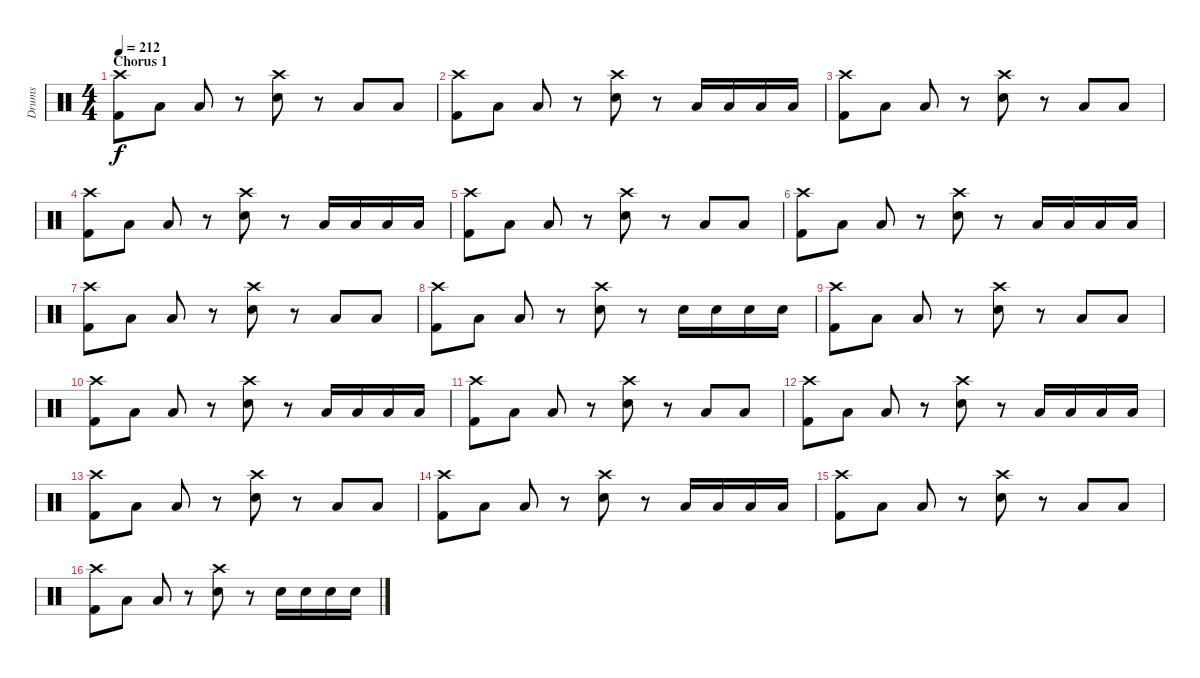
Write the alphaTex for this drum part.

\track ("Drums" "Drums") {instrument percussion}
\staff {score}
\articulation defaults
\ts (4 4)
\section ("" "Chorus 1")
\tempo 212
\clef neutral
\ks c
("Crash high (hit)" "Kick (hit) 2").8{dy f} "Low Floor Tom (hit)".8 "Low Floor Tom (hit)".8 r.8 ("Crash high (hit)" "Snare (hit) 2").8 r.8 "Low Floor Tom (hit)".8 "Low Floor Tom (hit)".8 |
("Crash high (hit)" "Kick (hit) 2").8 "Low Floor Tom (hit)".8 "Low Floor Tom (hit)".8 r.8 ("Crash high (hit)" "Snare (hit) 2").8 r.8 "Low Floor Tom (hit)".16 "Low Floor Tom (hit)".16 "Low Floor Tom (hit)".16 "Low Floor Tom (hit)".16 |
("Crash high (hit)" "Kick (hit) 2").8 "Low Floor Tom (hit)".8 "Low Floor Tom (hit)".8 r.8 ("Crash high (hit)" "Snare (hit) 2").8 r.8 "Low Floor Tom (hit)".8 "Low Floor Tom (hit)".8 |
("Crash high (hit)" "Kick (hit) 2").8 "Low Floor Tom (hit)".8 "Low Floor Tom (hit)".8 r.8 ("Crash high (hit)" "Snare (hit) 2").8 r.8 "Low Floor Tom (hit)".16 "Low Floor Tom (hit)".16 "Low Floor Tom (hit)".16 "Low Floor Tom (hit)".16 |
("Crash high (hit)" "Kick (hit) 2").8 "Low Floor Tom (hit)".8 "Low Floor Tom (hit)".8 r.8 ("Crash high (hit)" "Snare (hit) 2").8 r.8 "Low Floor Tom (hit)".8 "Low Floor Tom (hit)".8 |
("Crash high (hit)" "Kick (hit) 2").8 "Low Floor Tom (hit)".8 "Low Floor Tom (hit)".8 r.8 ("Crash high (hit)" "Snare (hit) 2").8 r.8 "Low Floor Tom (hit)".16 "Low Floor Tom (hit)".16 "Low Floor Tom (hit)".16 "Low Floor Tom (hit)".16 |
("Crash high (hit)" "Kick (hit) 2").8 "Low Floor Tom (hit)".8 "Low Floor Tom (hit)".8 r.8 ("Crash high (hit)" "Snare (hit) 2").8 r.8 "Low Floor Tom (hit)".8 "Low Floor Tom (hit)".8 |
("Crash high (hit)" "Kick (hit) 2").8 "Low Floor Tom (hit)".8 "Low Floor Tom (hit)".8 r.8 ("Crash high (hit)" "Snare (hit) 2").8 r.8 "Snare (hit) 2".16 "Snare (hit) 2".16 "Snare (hit) 2".16 "Snare (hit) 2".16 |
("Crash high (hit)" "Kick (hit) 2").8 "Low Floor Tom (hit)".8 "Low Floor Tom (hit)".8 r.8 ("Crash high (hit)" "Snare (hit) 2").8 r.8 "Low Floor Tom (hit)".8 "Low Floor Tom (hit)".8 |
("Crash high (hit)" "Kick (hit) 2").8 "Low Floor Tom (hit)".8 "Low Floor Tom (hit)".8 r.8 ("Crash high (hit)" "Snare (hit) 2").8 r.8 "Low Floor Tom (hit)".16 "Low Floor Tom (hit)".16 "Low Floor Tom (hit)".16 "Low Floor Tom (hit)".16 |
("Crash high (hit)" "Kick (hit) 2").8 "Low Floor Tom (hit)".8 "Low Floor Tom (hit)".8 r.8 ("Crash high (hit)" "Snare (hit) 2").8 r.8 "Low Floor Tom (hit)".8 "Low Floor Tom (hit)".8 |
("Crash high (hit)" "Kick (hit) 2").8 "Low Floor Tom (hit)".8 "Low Floor Tom (hit)".8 r.8 ("Crash high (hit)" "Snare (hit) 2").8 r.8 "Low Floor Tom (hit)".16 "Low Floor Tom (hit)".16 "Low Floor Tom (hit)".16 "Low Floor Tom (hit)".16 |
("Crash high (hit)" "Kick (hit) 2").8 "Low Floor Tom (hit)".8 "Low Floor Tom (hit)".8 r.8 ("Crash high (hit)" "Snare (hit) 2").8 r.8 "Low Floor Tom (hit)".8 "Low Floor Tom (hit)".8 |
("Crash high (hit)" "Kick (hit) 2").8 "Low Floor Tom (hit)".8 "Low Floor Tom (hit)".8 r.8 ("Crash high (hit)" "Snare (hit) 2").8 r.8 "Low Floor Tom (hit)".16 "Low Floor Tom (hit)".16 "Low Floor Tom (hit)".16 "Low Floor Tom (hit)".16 |
("Crash high (hit)" "Kick (hit) 2").8 "Low Floor Tom (hit)".8 "Low Floor Tom (hit)".8 r.8 ("Crash high (hit)" "Snare (hit) 2").8 r.8 "Low Floor Tom (hit)".8 "Low Floor Tom (hit)".8 |
("Crash high (hit)" "Kick (hit) 2").8 "Low Floor Tom (hit)".8 "Low Floor Tom (hit)".8 r.8 ("Crash high (hit)" "Snare (hit) 2").8 r.8 "Snare (hit) 2".16 "Snare (hit) 2".16 "Snare (hit) 2".16 "Snare (hit) 2".16
